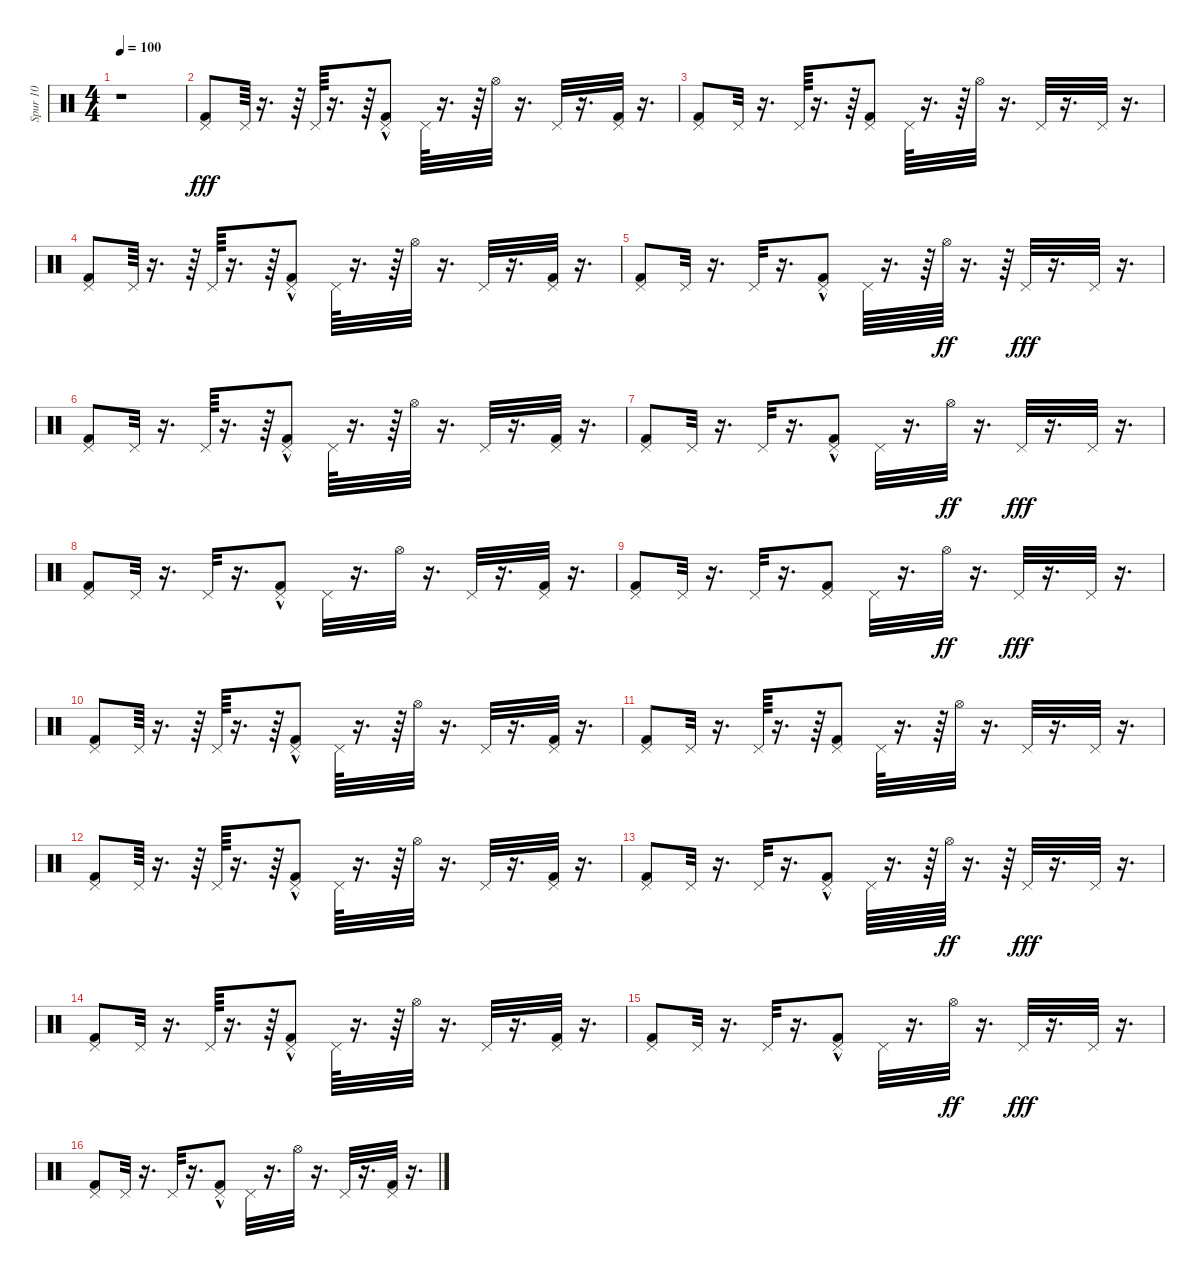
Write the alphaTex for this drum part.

\track ("Spur 10" "Spur 10") {instrument percussion}
\staff {score}
\articulation defaults
\ts (4 4)
\tempo 100
\clef neutral
\ks c
r.1{dy fff} |
("Pedal Hi-Hat (hit)" "Kick (hit) 2").8 "Pedal Hi-Hat (hit)".64 r.16{d} r.64 "Pedal Hi-Hat (hit)".64 r.16{d} r.64 ("Pedal Hi-Hat (hit)" "Kick (hit) 2"{hac}).8 "Pedal Hi-Hat (hit)".64 r.16{d} r.64 "Hi-Hat (open)".32 r.16{d} "Pedal Hi-Hat (hit)".32 r.16{d} ("Pedal Hi-Hat (hit)" "Kick (hit) 2").32 r.16{d} |
("Pedal Hi-Hat (hit)" "Kick (hit) 2").8 "Pedal Hi-Hat (hit)".32 r.16{d} "Pedal Hi-Hat (hit)".64 r.16{d} r.64 ("Pedal Hi-Hat (hit)" "Kick (hit) 2").8 "Pedal Hi-Hat (hit)".64 r.16{d} r.64 "Hi-Hat (open)".32 r.16{d} "Pedal Hi-Hat (hit)".32 r.16{d} "Pedal Hi-Hat (hit)".32 r.16{d} |
("Pedal Hi-Hat (hit)" "Kick (hit) 2").8 "Pedal Hi-Hat (hit)".64 r.16{d} r.64 "Pedal Hi-Hat (hit)".64 r.16{d} r.64 ("Pedal Hi-Hat (hit)" "Kick (hit) 2"{hac}).8 "Pedal Hi-Hat (hit)".64 r.16{d} r.64 "Hi-Hat (open)".32 r.16{d} "Pedal Hi-Hat (hit)".32 r.16{d} ("Pedal Hi-Hat (hit)" "Kick (hit) 2").32 r.16{d} |
("Pedal Hi-Hat (hit)" "Kick (hit) 2").8 "Pedal Hi-Hat (hit)".32 r.16{d} "Pedal Hi-Hat (hit)".32 r.16{d} ("Pedal Hi-Hat (hit)" "Kick (hit) 2"{hac}).8 "Pedal Hi-Hat (hit)".64 r.16{d} r.64 "Hi-Hat (open)".64{dy ff} r.16{d} r.64 "Pedal Hi-Hat (hit)".32{dy fff} r.16{d} "Pedal Hi-Hat (hit)".32 r.16{d} |
("Pedal Hi-Hat (hit)" "Kick (hit) 2").8 "Pedal Hi-Hat (hit)".32 r.16{d} "Pedal Hi-Hat (hit)".64 r.16{d} r.64 ("Pedal Hi-Hat (hit)" "Kick (hit) 2"{hac}).8 "Pedal Hi-Hat (hit)".64 r.16{d} r.64 "Hi-Hat (open)".32 r.16{d} "Pedal Hi-Hat (hit)".32 r.16{d} ("Pedal Hi-Hat (hit)" "Kick (hit) 2").32 r.16{d} |
("Pedal Hi-Hat (hit)" "Kick (hit) 2").8 "Pedal Hi-Hat (hit)".32 r.16{d} "Pedal Hi-Hat (hit)".32 r.16{d} ("Pedal Hi-Hat (hit)" "Kick (hit) 2"{hac}).8 "Pedal Hi-Hat (hit)".32 r.16{d} "Hi-Hat (open)".32{dy ff} r.16{d} "Pedal Hi-Hat (hit)".32{dy fff} r.16{d} "Pedal Hi-Hat (hit)".32 r.16{d} |
("Pedal Hi-Hat (hit)" "Kick (hit) 2").8 "Pedal Hi-Hat (hit)".32 r.16{d} "Pedal Hi-Hat (hit)".32 r.16{d} ("Pedal Hi-Hat (hit)" "Kick (hit) 2"{hac}).8 "Pedal Hi-Hat (hit)".32 r.16{d} "Hi-Hat (open)".32 r.16{d} "Pedal Hi-Hat (hit)".32 r.16{d} ("Pedal Hi-Hat (hit)" "Kick (hit) 2").32 r.16{d} |
("Pedal Hi-Hat (hit)" "Kick (hit) 2").8 "Pedal Hi-Hat (hit)".32 r.16{d} "Pedal Hi-Hat (hit)".32 r.16{d} ("Pedal Hi-Hat (hit)" "Kick (hit) 2").8 "Pedal Hi-Hat (hit)".32 r.16{d} "Hi-Hat (open)".32{dy ff} r.16{d} "Pedal Hi-Hat (hit)".32{dy fff} r.16{d} "Pedal Hi-Hat (hit)".32 r.16{d} |
("Pedal Hi-Hat (hit)" "Kick (hit) 2").8 "Pedal Hi-Hat (hit)".64 r.16{d} r.64 "Pedal Hi-Hat (hit)".64 r.16{d} r.64 ("Pedal Hi-Hat (hit)" "Kick (hit) 2"{hac}).8 "Pedal Hi-Hat (hit)".64 r.16{d} r.64 "Hi-Hat (open)".32 r.16{d} "Pedal Hi-Hat (hit)".32 r.16{d} ("Pedal Hi-Hat (hit)" "Kick (hit) 2").32 r.16{d} |
("Pedal Hi-Hat (hit)" "Kick (hit) 2").8 "Pedal Hi-Hat (hit)".32 r.16{d} "Pedal Hi-Hat (hit)".64 r.16{d} r.64 ("Pedal Hi-Hat (hit)" "Kick (hit) 2").8 "Pedal Hi-Hat (hit)".64 r.16{d} r.64 "Hi-Hat (open)".32 r.16{d} "Pedal Hi-Hat (hit)".32 r.16{d} "Pedal Hi-Hat (hit)".32 r.16{d} |
("Pedal Hi-Hat (hit)" "Kick (hit) 2").8 "Pedal Hi-Hat (hit)".64 r.16{d} r.64 "Pedal Hi-Hat (hit)".64 r.16{d} r.64 ("Pedal Hi-Hat (hit)" "Kick (hit) 2"{hac}).8 "Pedal Hi-Hat (hit)".64 r.16{d} r.64 "Hi-Hat (open)".32 r.16{d} "Pedal Hi-Hat (hit)".32 r.16{d} ("Pedal Hi-Hat (hit)" "Kick (hit) 2").32 r.16{d} |
("Pedal Hi-Hat (hit)" "Kick (hit) 2").8 "Pedal Hi-Hat (hit)".32 r.16{d} "Pedal Hi-Hat (hit)".32 r.16{d} ("Pedal Hi-Hat (hit)" "Kick (hit) 2"{hac}).8 "Pedal Hi-Hat (hit)".64 r.16{d} r.64 "Hi-Hat (open)".64{dy ff} r.16{d} r.64 "Pedal Hi-Hat (hit)".32{dy fff} r.16{d} "Pedal Hi-Hat (hit)".32 r.16{d} |
("Pedal Hi-Hat (hit)" "Kick (hit) 2").8 "Pedal Hi-Hat (hit)".32 r.16{d} "Pedal Hi-Hat (hit)".64 r.16{d} r.64 ("Pedal Hi-Hat (hit)" "Kick (hit) 2"{hac}).8 "Pedal Hi-Hat (hit)".64 r.16{d} r.64 "Hi-Hat (open)".32 r.16{d} "Pedal Hi-Hat (hit)".32 r.16{d} ("Pedal Hi-Hat (hit)" "Kick (hit) 2").32 r.16{d} |
("Pedal Hi-Hat (hit)" "Kick (hit) 2").8 "Pedal Hi-Hat (hit)".32 r.16{d} "Pedal Hi-Hat (hit)".32 r.16{d} ("Pedal Hi-Hat (hit)" "Kick (hit) 2"{hac}).8 "Pedal Hi-Hat (hit)".32 r.16{d} "Hi-Hat (open)".32{dy ff} r.16{d} "Pedal Hi-Hat (hit)".32{dy fff} r.16{d} "Pedal Hi-Hat (hit)".32 r.16{d} |
("Pedal Hi-Hat (hit)" "Kick (hit) 2").8 "Pedal Hi-Hat (hit)".32 r.16{d} "Pedal Hi-Hat (hit)".32 r.16{d} ("Pedal Hi-Hat (hit)" "Kick (hit) 2"{hac}).8 "Pedal Hi-Hat (hit)".32 r.16{d} "Hi-Hat (open)".32 r.16{d} "Pedal Hi-Hat (hit)".32 r.16{d} ("Pedal Hi-Hat (hit)" "Kick (hit) 2").32 r.16{d}
